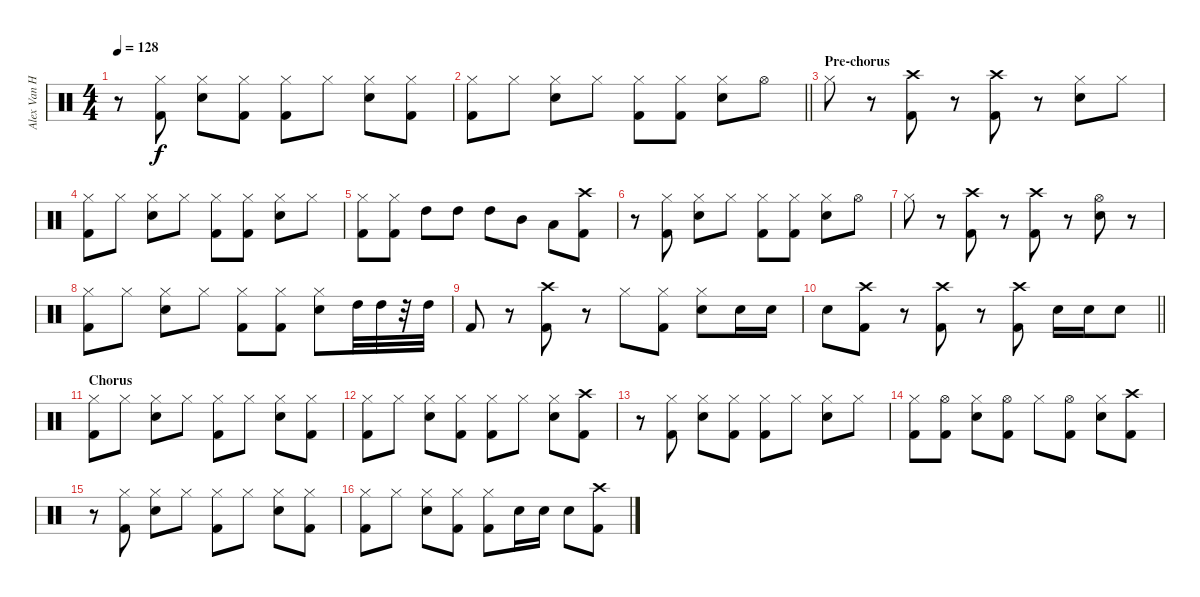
\track ("Alex Van Halen" "Alex Van H") {instrument percussion}
\staff {score}
\articulation defaults
\ts (4 4)
\tempo 128
\clef neutral
\ks c
r.8{dy f} ("Kick (hit) 2" "Hi-Hat (closed)").8 ("Snare (hit) 2" "Hi-Hat (closed)").8 ("Kick (hit) 2" "Hi-Hat (closed)").8 ("Kick (hit) 2" "Hi-Hat (closed)").8 "Hi-Hat (closed)".8 ("Snare (hit) 2" "Hi-Hat (closed)").8 ("Kick (hit) 2" "Hi-Hat (closed)").8 |
\barLineRight lightlight
("Kick (hit) 2" "Hi-Hat (closed)").8 "Hi-Hat (closed)".8 ("Snare (hit) 2" "Hi-Hat (closed)").8 "Hi-Hat (closed)".8 ("Kick (hit) 2" "Hi-Hat (closed)").8 ("Kick (hit) 2" "Hi-Hat (closed)").8 ("Snare (hit) 2" "Hi-Hat (closed)").8 "Hi-Hat (open)".8 |
\section ("" "Pre-chorus")
"Hi-Hat (closed)".8 r.8 ("Kick (hit) 2" "Crash high (hit)").8 r.8 ("Crash high (hit)" "Kick (hit) 2").8 r.8 ("Snare (hit) 2" "Hi-Hat (closed)").8 "Hi-Hat (closed)".8 |
("Kick (hit) 2" "Hi-Hat (closed)").8 "Hi-Hat (closed)".8 ("Snare (hit) 2" "Hi-Hat (closed)").8 "Hi-Hat (closed)".8 ("Kick (hit) 2" "Hi-Hat (closed)").8 ("Kick (hit) 2" "Hi-Hat (closed)").8 ("Snare (hit) 2" "Hi-Hat (closed)").8 "Hi-Hat (closed)".8 |
("Kick (hit) 2" "Hi-Hat (closed)").8 ("Kick (hit) 2" "Hi-Hat (closed)").8 "High Tom (hit)".8 "High Tom (hit)".8 "High Tom (hit)".8 "Mid Tom (hit)".8 "Low Tom (hit)".8 ("Kick (hit) 2" "Crash high (hit)").8 |
r.8 ("Kick (hit) 2" "Hi-Hat (closed)").8 ("Snare (hit) 2" "Hi-Hat (closed)").8 "Hi-Hat (closed)".8 ("Kick (hit) 2" "Hi-Hat (closed)").8 ("Kick (hit) 2" "Hi-Hat (closed)").8 ("Snare (hit) 2" "Hi-Hat (closed)").8 "Hi-Hat (open)".8 |
"Hi-Hat (closed)".8 r.8 ("Kick (hit) 2" "Crash high (hit)").8 r.8 ("Kick (hit) 2" "Crash high (hit)").8 r.8 ("Snare (hit) 2" "Hi-Hat (open)").8 r.8 |
("Kick (hit) 2" "Hi-Hat (closed)").8 "Hi-Hat (closed)".8 ("Snare (hit) 2" "Hi-Hat (closed)").8 "Hi-Hat (closed)".8 ("Kick (hit) 2" "Hi-Hat (closed)").8 ("Kick (hit) 2" "Hi-Hat (closed)").8 ("Snare (hit) 2" "Hi-Hat (closed)").8 "High Tom (hit)".32 "High Tom (hit)".32 r.32 "High Tom (hit)".32 |
"Kick (hit) 2".8 r.8 ("Crash high (hit)" "Kick (hit) 2").8 r.8 "Hi-Hat (closed)".8 ("Kick (hit) 2" "Hi-Hat (closed)").8 ("Snare (hit) 2" "Hi-Hat (closed)").8 "Snare (hit) 2".16 "Snare (hit) 2".16 |
\barLineRight lightlight "Snare (hit) 2".8
("Crash high (hit)" "Kick (hit) 2").8 r.8 ("Crash high (hit)" "Kick (hit) 2").8 r.8 ("Crash high (hit)" "Kick (hit) 2").8 "Snare (hit) 2".16 "Snare (hit) 2".16 "Snare (hit) 2".8 |
\section ("" "Chorus")
("Kick (hit) 2" "Hi-Hat (closed)").8 "Hi-Hat (closed)".8 ("Snare (hit) 2" "Hi-Hat (closed)").8 "Hi-Hat (closed)".8 ("Kick (hit) 2" "Hi-Hat (closed)").8 "Hi-Hat (closed)".8 ("Snare (hit) 2" "Hi-Hat (closed)").8 ("Kick (hit) 2" "Hi-Hat (closed)").8 |
("Kick (hit) 2" "Hi-Hat (closed)").8 "Hi-Hat (closed)".8 ("Snare (hit) 2" "Hi-Hat (closed)").8 ("Kick (hit) 2" "Hi-Hat (closed)").8 ("Kick (hit) 2" "Hi-Hat (closed)").8 "Hi-Hat (closed)".8 ("Snare (hit) 2" "Hi-Hat (closed)").8 ("Kick (hit) 2" "Crash high (hit)").8 |
r.8 ("Kick (hit) 2" "Hi-Hat (closed)").8 ("Snare (hit) 2" "Hi-Hat (closed)").8 ("Kick (hit) 2" "Hi-Hat (closed)").8 ("Kick (hit) 2" "Hi-Hat (closed)").8 "Hi-Hat (closed)".8 ("Snare (hit) 2" "Hi-Hat (closed)").8 "Hi-Hat (closed)".8 |
("Kick (hit) 2" "Hi-Hat (closed)").8 ("Kick (hit) 2" "Hi-Hat (open)").8 ("Snare (hit) 2" "Hi-Hat (closed)").8 ("Kick (hit) 2" "Hi-Hat (open)").8 "Hi-Hat (closed)".8 ("Kick (hit) 2" "Hi-Hat (open)").8 ("Snare (hit) 2" "Hi-Hat (closed)").8 ("Kick (hit) 2" "Crash high (hit)").8 |
r.8 ("Kick (hit) 2" "Hi-Hat (closed)").8 ("Snare (hit) 2" "Hi-Hat (closed)").8 "Hi-Hat (closed)".8 ("Kick (hit) 2" "Hi-Hat (closed)").8 "Hi-Hat (closed)".8 ("Snare (hit) 2" "Hi-Hat (closed)").8 ("Kick (hit) 2" "Hi-Hat (closed)").8 |
("Kick (hit) 2" "Hi-Hat (closed)").8 "Hi-Hat (closed)".8 ("Snare (hit) 2" "Hi-Hat (closed)").8 ("Kick (hit) 2" "Hi-Hat (closed)").8 ("Kick (hit) 2" "Hi-Hat (closed)").8 "Snare (hit) 2".16 "Snare (hit) 2".16 "Snare (hit) 2".8 ("Kick (hit) 2" "Crash high (hit)").8
